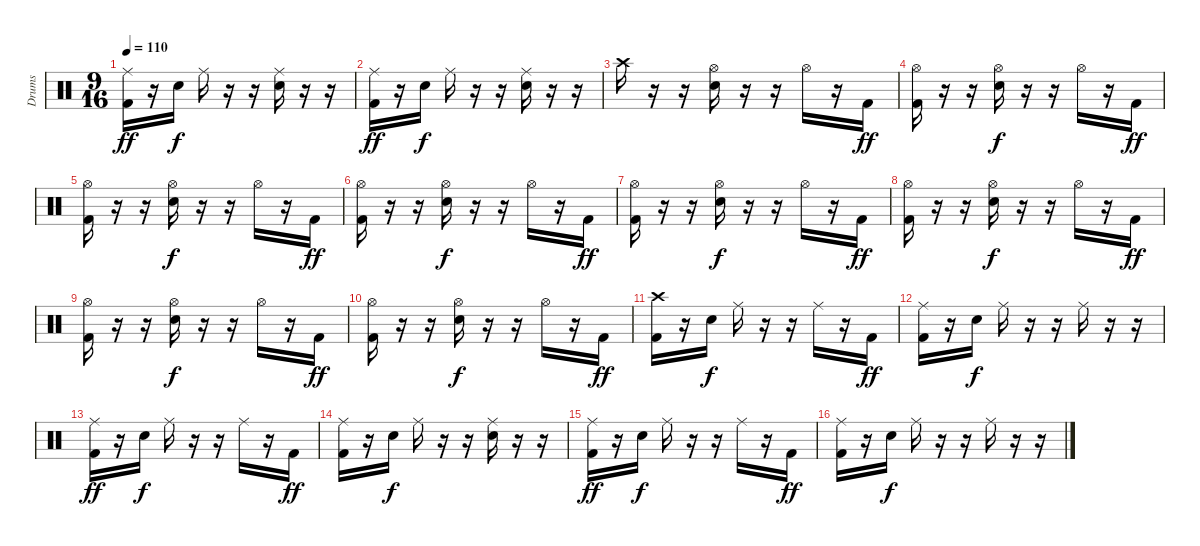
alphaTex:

\track ("Drums" "Drums") {instrument percussion}
\staff {score}
\articulation defaults
\ts (9 16)
\tempo 110
\clef neutral
\ks c
("Ride (middle)" "Kick (hit) 2").16{dy ff} r.16 "Snare (hit) 2".16{dy f} "Ride (middle)".16 r.16 r.16 ("Ride (middle)" "Snare (hit) 2").16 r.16 r.16 |
("Ride (middle)" "Kick (hit) 2").16{dy ff} r.16 "Snare (hit) 2".16{dy f} "Ride (middle)".16 r.16 r.16 ("Ride (middle)" "Snare (hit) 2").16 r.16 r.16 |
"Crash high (hit)".16 r.16 r.16 ("Hi-Hat (open)" "Snare (hit) 2").16 r.16 r.16 "Hi-Hat (open)".16 r.16 "Kick (hit) 2".16{dy ff} |
("Hi-Hat (open)" "Kick (hit) 2").16 r.16 r.16 ("Hi-Hat (open)" "Snare (hit) 2").16{dy f} r.16 r.16 "Hi-Hat (open)".16 r.16 "Kick (hit) 2".16{dy ff} |
("Hi-Hat (open)" "Kick (hit) 2").16 r.16 r.16 ("Hi-Hat (open)" "Snare (hit) 2").16{dy f} r.16 r.16 "Hi-Hat (open)".16 r.16 "Kick (hit) 2".16{dy ff} |
("Hi-Hat (open)" "Kick (hit) 2").16 r.16 r.16 ("Hi-Hat (open)" "Snare (hit) 2").16{dy f} r.16 r.16 "Hi-Hat (open)".16 r.16 "Kick (hit) 2".16{dy ff} |
("Hi-Hat (open)" "Kick (hit) 2").16 r.16 r.16 ("Hi-Hat (open)" "Snare (hit) 2").16{dy f} r.16 r.16 "Hi-Hat (open)".16 r.16 "Kick (hit) 2".16{dy ff} |
("Hi-Hat (open)" "Kick (hit) 2").16 r.16 r.16 ("Hi-Hat (open)" "Snare (hit) 2").16{dy f} r.16 r.16 "Hi-Hat (open)".16 r.16 "Kick (hit) 2".16{dy ff} |
("Hi-Hat (open)" "Kick (hit) 2").16 r.16 r.16 ("Hi-Hat (open)" "Snare (hit) 2").16{dy f} r.16 r.16 "Hi-Hat (open)".16 r.16 "Kick (hit) 2".16{dy ff} |
("Hi-Hat (open)" "Kick (hit) 2").16 r.16 r.16 ("Hi-Hat (open)" "Snare (hit) 2").16{dy f} r.16 r.16 "Hi-Hat (open)".16 r.16 "Kick (hit) 2".16{dy ff} |
("Crash high (hit)" "Kick (hit) 2").16 r.16 "Snare (hit) 2".16{dy f} "Ride (middle)".16 r.16 r.16 "Ride (middle)".16 r.16 "Kick (hit) 2".16{dy ff} |
("Ride (middle)" "Kick (hit) 2").16 r.16 "Snare (hit) 2".16{dy f} "Ride (middle)".16 r.16 r.16 "Ride (middle)".16 r.16 r.16 |
("Ride (middle)" "Kick (hit) 2").16{dy ff} r.16 "Snare (hit) 2".16{dy f} "Ride (middle)".16 r.16 r.16 "Ride (middle)".16 r.16 "Kick (hit) 2".16{dy ff} |
("Ride (middle)" "Kick (hit) 2").16 r.16 "Snare (hit) 2".16{dy f} "Ride (middle)".16 r.16 r.16 ("Ride (middle)" "Snare (hit) 2").16 r.16 r.16 |
("Ride (middle)" "Kick (hit) 2").16{dy ff} r.16 "Snare (hit) 2".16{dy f} "Ride (middle)".16 r.16 r.16 "Ride (middle)".16 r.16 "Kick (hit) 2".16{dy ff} |
("Ride (middle)" "Kick (hit) 2").16 r.16 "Snare (hit) 2".16{dy f} "Ride (middle)".16 r.16 r.16 "Ride (middle)".16 r.16 r.16
